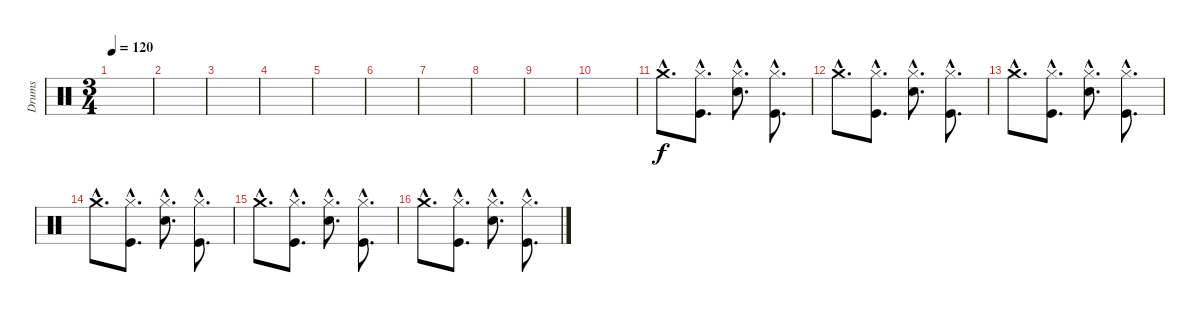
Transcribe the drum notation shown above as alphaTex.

\track ("Drums" "Drums") {instrument percussion}
\staff {score}
\articulation defaults
\ts (3 4)
\tempo 120
\clef neutral
\ks c
|
|
|
|
|
|
|
|
|
|
"Crash medium (hit)"{hac}.8{d} ("Kick (hit)"{hac} "Hi-Hat (closed)"{hac}).8{d} ("Snare (hit) 2"{hac} "Hi-Hat (closed)"{hac}).8{d} ("Kick (hit)"{hac} "Hi-Hat (closed)"{hac}).8{d} |
"Crash medium (hit)"{hac}.8{d} ("Kick (hit)"{hac} "Hi-Hat (closed)"{hac}).8{d} ("Snare (hit) 2"{hac} "Hi-Hat (closed)"{hac}).8{d} ("Kick (hit)"{hac} "Hi-Hat (closed)"{hac}).8{d} |
"Crash medium (hit)"{hac}.8{d} ("Kick (hit)"{hac} "Hi-Hat (closed)"{hac}).8{d} ("Snare (hit) 2"{hac} "Hi-Hat (closed)"{hac}).8{d} ("Kick (hit)"{hac} "Hi-Hat (closed)"{hac}).8{d} |
"Crash medium (hit)"{hac}.8{d} ("Kick (hit)"{hac} "Hi-Hat (closed)"{hac}).8{d} ("Snare (hit) 2"{hac} "Hi-Hat (closed)"{hac}).8{d} ("Kick (hit)"{hac} "Hi-Hat (closed)"{hac}).8{d} |
"Crash medium (hit)"{hac}.8{d} ("Kick (hit)"{hac} "Hi-Hat (closed)"{hac}).8{d} ("Snare (hit) 2"{hac} "Hi-Hat (closed)"{hac}).8{d} ("Kick (hit)"{hac} "Hi-Hat (closed)"{hac}).8{d} |
"Crash medium (hit)"{hac}.8{d} ("Kick (hit)"{hac} "Hi-Hat (closed)"{hac}).8{d} ("Snare (hit) 2"{hac} "Hi-Hat (closed)"{hac}).8{d} ("Kick (hit)"{hac} "Hi-Hat (closed)"{hac}).8{d}
